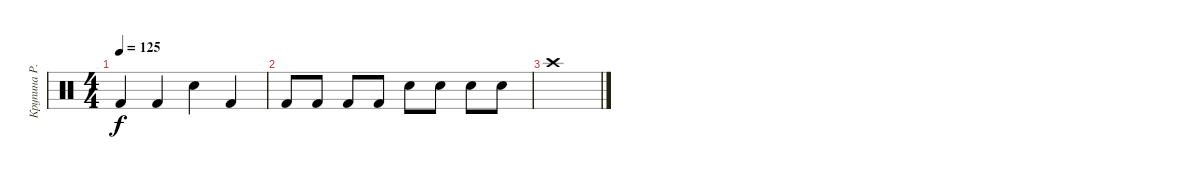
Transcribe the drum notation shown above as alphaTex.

\track ("Крупина Р.В." "Крупина Р.") {instrument percussion}
\staff {score}
\articulation defaults
\ts (4 4)
\tempo 125
\clef neutral
\ks c "Kick (hit) 2".4{dy f} "Kick (hit) 2".4 "Snare (hit) 2".4 "Kick (hit) 2".4
|
"Kick (hit) 2".8 "Kick (hit) 2".8 "Kick (hit) 2".8 "Kick (hit) 2".8 "Snare (hit) 2".8 "Snare (hit) 2".8 "Snare (hit) 2".8 "Snare (hit) 2".8 |
"Crash high (hit)".1
